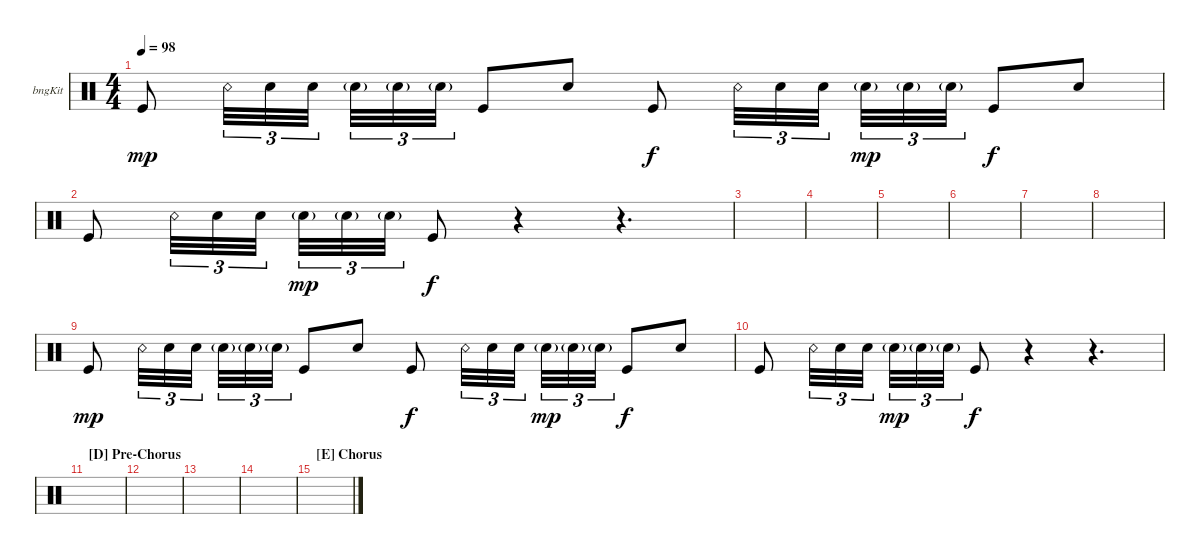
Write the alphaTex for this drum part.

\defaultSystemsLayout 4
\bracketExtendMode groupsimilarinstruments
\firstSystemTrackNameOrientation horizontal
\otherSystemsTrackNameOrientation horizontal
\track ("Bongos" "bngKit") {instrument percussion}
\staff {score}
\articulation defaults
\ts (4 4)
\tempo 98
\clef neutral
\ks c "Kick (hit)".8{dy mp} "Snare (rim shot)".32{tu (3 2)} "Snare (hit) 2".32{tu (3 2)} "Snare (hit) 2".32{tu (3 2)} "Snare (hit) 2"{g}.32{tu (3 2)} "Snare (hit) 2"{g}.32{tu (3 2)} "Snare (hit) 2"{g}.32{tu (3 2)} "Kick (hit)".8 "Snare (hit) 2".8 "Kick (hit)".8{dy f} "Snare (rim shot)".32{tu (3 2)} "Snare (hit) 2".32{tu (3 2)} "Snare (hit) 2".32{tu (3 2)} "Snare (hit) 2"{g}.32{tu (3 2) dy mp} "Snare (hit) 2"{g}.32{tu (3 2)} "Snare (hit) 2"{g}.32{tu (3 2)} "Kick (hit)".8{dy f} "Snare (hit) 2".8
|
"Kick (hit)".8 "Snare (rim shot)".32{tu (3 2)} "Snare (hit) 2".32{tu (3 2)} "Snare (hit) 2".32{tu (3 2)} "Snare (hit) 2"{g}.32{tu (3 2) dy mp} "Snare (hit) 2"{g}.32{tu (3 2)} "Snare (hit) 2"{g}.32{tu (3 2)} "Kick (hit)".8{dy f} r.4 r.4{d} |
|
|
|
|
|
|
"Kick (hit)".8{dy mp} "Snare (rim shot)".32{tu (3 2)} "Snare (hit) 2".32{tu (3 2)} "Snare (hit) 2".32{tu (3 2)} "Snare (hit) 2"{g}.32{tu (3 2)} "Snare (hit) 2"{g}.32{tu (3 2)} "Snare (hit) 2"{g}.32{tu (3 2)} "Kick (hit)".8 "Snare (hit) 2".8 "Kick (hit)".8{dy f} "Snare (rim shot)".32{tu (3 2)} "Snare (hit) 2".32{tu (3 2)} "Snare (hit) 2".32{tu (3 2)} "Snare (hit) 2"{g}.32{tu (3 2) dy mp} "Snare (hit) 2"{g}.32{tu (3 2)} "Snare (hit) 2"{g}.32{tu (3 2)} "Kick (hit)".8{dy f} "Snare (hit) 2".8 |
"Kick (hit)".8 "Snare (rim shot)".32{tu (3 2)} "Snare (hit) 2".32{tu (3 2)} "Snare (hit) 2".32{tu (3 2)} "Snare (hit) 2"{g}.32{tu (3 2) dy mp} "Snare (hit) 2"{g}.32{tu (3 2)} "Snare (hit) 2"{g}.32{tu (3 2)} "Kick (hit)".8{dy f} r.4 r.4{d} |
\section ("D" "Pre-Chorus")
|
|
|
|
\section ("E" "Chorus")
